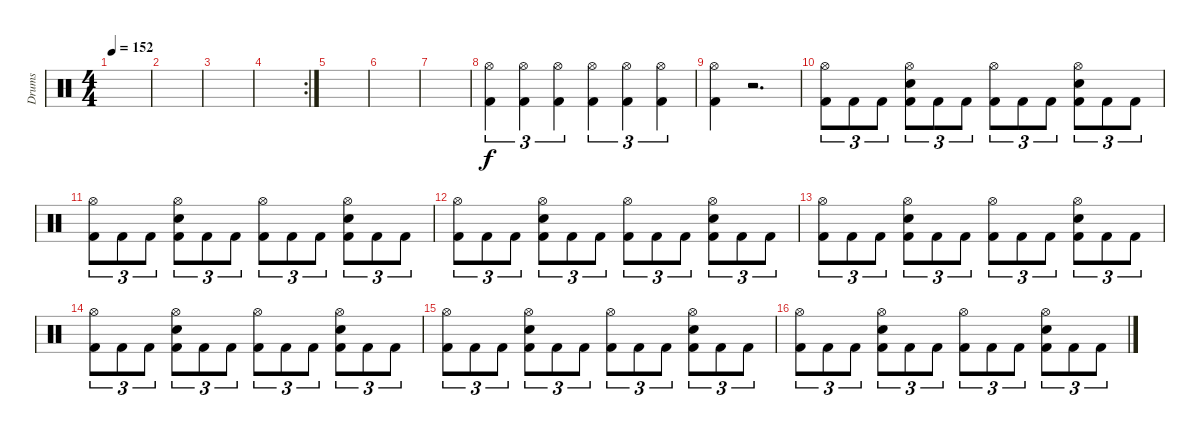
\track ("Drums" "Drums") {instrument percussion}
\staff {score}
\articulation defaults
\ts (4 4)
\tempo 152
\clef neutral
\ks c
|
|
|
\rc 2
|
|
|
|
("Hi-Hat (open)" "Kick (hit) 2").4{tu (3 2)} ("Hi-Hat (open)" "Kick (hit) 2").4{tu (3 2)} ("Hi-Hat (open)" "Kick (hit) 2").4{tu (3 2)} ("Hi-Hat (open)" "Kick (hit) 2").4{tu (3 2)} ("Hi-Hat (open)" "Kick (hit) 2").4{tu (3 2)} ("Hi-Hat (open)" "Kick (hit) 2").4{tu (3 2)} |
("Hi-Hat (open)" "Kick (hit) 2").4 r.2{d} |
("Hi-Hat (open)" "Kick (hit) 2").8{tu (3 2)} "Kick (hit) 2".8{tu (3 2)} "Kick (hit) 2".8{tu (3 2)} ("Hi-Hat (open)" "Snare (hit) 2" "Kick (hit) 2").8{tu (3 2)} "Kick (hit) 2".8{tu (3 2)} "Kick (hit) 2".8{tu (3 2)} ("Hi-Hat (open)" "Kick (hit) 2").8{tu (3 2)} "Kick (hit) 2".8{tu (3 2)} "Kick (hit) 2".8{tu (3 2)} ("Hi-Hat (open)" "Snare (hit) 2" "Kick (hit) 2").8{tu (3 2)} "Kick (hit) 2".8{tu (3 2)} "Kick (hit) 2".8{tu (3 2)} |
("Hi-Hat (open)" "Kick (hit) 2").8{tu (3 2)} "Kick (hit) 2".8{tu (3 2)} "Kick (hit) 2".8{tu (3 2)} ("Hi-Hat (open)" "Snare (hit) 2" "Kick (hit) 2").8{tu (3 2)} "Kick (hit) 2".8{tu (3 2)} "Kick (hit) 2".8{tu (3 2)} ("Hi-Hat (open)" "Kick (hit) 2").8{tu (3 2)} "Kick (hit) 2".8{tu (3 2)} "Kick (hit) 2".8{tu (3 2)} ("Hi-Hat (open)" "Snare (hit) 2" "Kick (hit) 2").8{tu (3 2)} "Kick (hit) 2".8{tu (3 2)} "Kick (hit) 2".8{tu (3 2)} |
("Hi-Hat (open)" "Kick (hit) 2").8{tu (3 2)} "Kick (hit) 2".8{tu (3 2)} "Kick (hit) 2".8{tu (3 2)} ("Hi-Hat (open)" "Snare (hit) 2" "Kick (hit) 2").8{tu (3 2)} "Kick (hit) 2".8{tu (3 2)} "Kick (hit) 2".8{tu (3 2)} ("Hi-Hat (open)" "Kick (hit) 2").8{tu (3 2)} "Kick (hit) 2".8{tu (3 2)} "Kick (hit) 2".8{tu (3 2)} ("Hi-Hat (open)" "Snare (hit) 2" "Kick (hit) 2").8{tu (3 2)} "Kick (hit) 2".8{tu (3 2)} "Kick (hit) 2".8{tu (3 2)} |
("Hi-Hat (open)" "Kick (hit) 2").8{tu (3 2)} "Kick (hit) 2".8{tu (3 2)} "Kick (hit) 2".8{tu (3 2)} ("Hi-Hat (open)" "Snare (hit) 2" "Kick (hit) 2").8{tu (3 2)} "Kick (hit) 2".8{tu (3 2)} "Kick (hit) 2".8{tu (3 2)} ("Hi-Hat (open)" "Kick (hit) 2").8{tu (3 2)} "Kick (hit) 2".8{tu (3 2)} "Kick (hit) 2".8{tu (3 2)} ("Hi-Hat (open)" "Snare (hit) 2" "Kick (hit) 2").8{tu (3 2)} "Kick (hit) 2".8{tu (3 2)} "Kick (hit) 2".8{tu (3 2)} |
("Hi-Hat (open)" "Kick (hit) 2").8{tu (3 2)} "Kick (hit) 2".8{tu (3 2)} "Kick (hit) 2".8{tu (3 2)} ("Hi-Hat (open)" "Snare (hit) 2" "Kick (hit) 2").8{tu (3 2)} "Kick (hit) 2".8{tu (3 2)} "Kick (hit) 2".8{tu (3 2)} ("Hi-Hat (open)" "Kick (hit) 2").8{tu (3 2)} "Kick (hit) 2".8{tu (3 2)} "Kick (hit) 2".8{tu (3 2)} ("Hi-Hat (open)" "Snare (hit) 2" "Kick (hit) 2").8{tu (3 2)} "Kick (hit) 2".8{tu (3 2)} "Kick (hit) 2".8{tu (3 2)} |
("Hi-Hat (open)" "Kick (hit) 2").8{tu (3 2)} "Kick (hit) 2".8{tu (3 2)} "Kick (hit) 2".8{tu (3 2)} ("Hi-Hat (open)" "Snare (hit) 2" "Kick (hit) 2").8{tu (3 2)} "Kick (hit) 2".8{tu (3 2)} "Kick (hit) 2".8{tu (3 2)} ("Hi-Hat (open)" "Kick (hit) 2").8{tu (3 2)} "Kick (hit) 2".8{tu (3 2)} "Kick (hit) 2".8{tu (3 2)} ("Hi-Hat (open)" "Snare (hit) 2" "Kick (hit) 2").8{tu (3 2)} "Kick (hit) 2".8{tu (3 2)} "Kick (hit) 2".8{tu (3 2)} |
("Hi-Hat (open)" "Kick (hit) 2").8{tu (3 2)} "Kick (hit) 2".8{tu (3 2)} "Kick (hit) 2".8{tu (3 2)} ("Hi-Hat (open)" "Snare (hit) 2" "Kick (hit) 2").8{tu (3 2)} "Kick (hit) 2".8{tu (3 2)} "Kick (hit) 2".8{tu (3 2)} ("Hi-Hat (open)" "Kick (hit) 2").8{tu (3 2)} "Kick (hit) 2".8{tu (3 2)} "Kick (hit) 2".8{tu (3 2)} ("Hi-Hat (open)" "Snare (hit) 2" "Kick (hit) 2").8{tu (3 2)} "Kick (hit) 2".8{tu (3 2)} "Kick (hit) 2".8{tu (3 2)}
